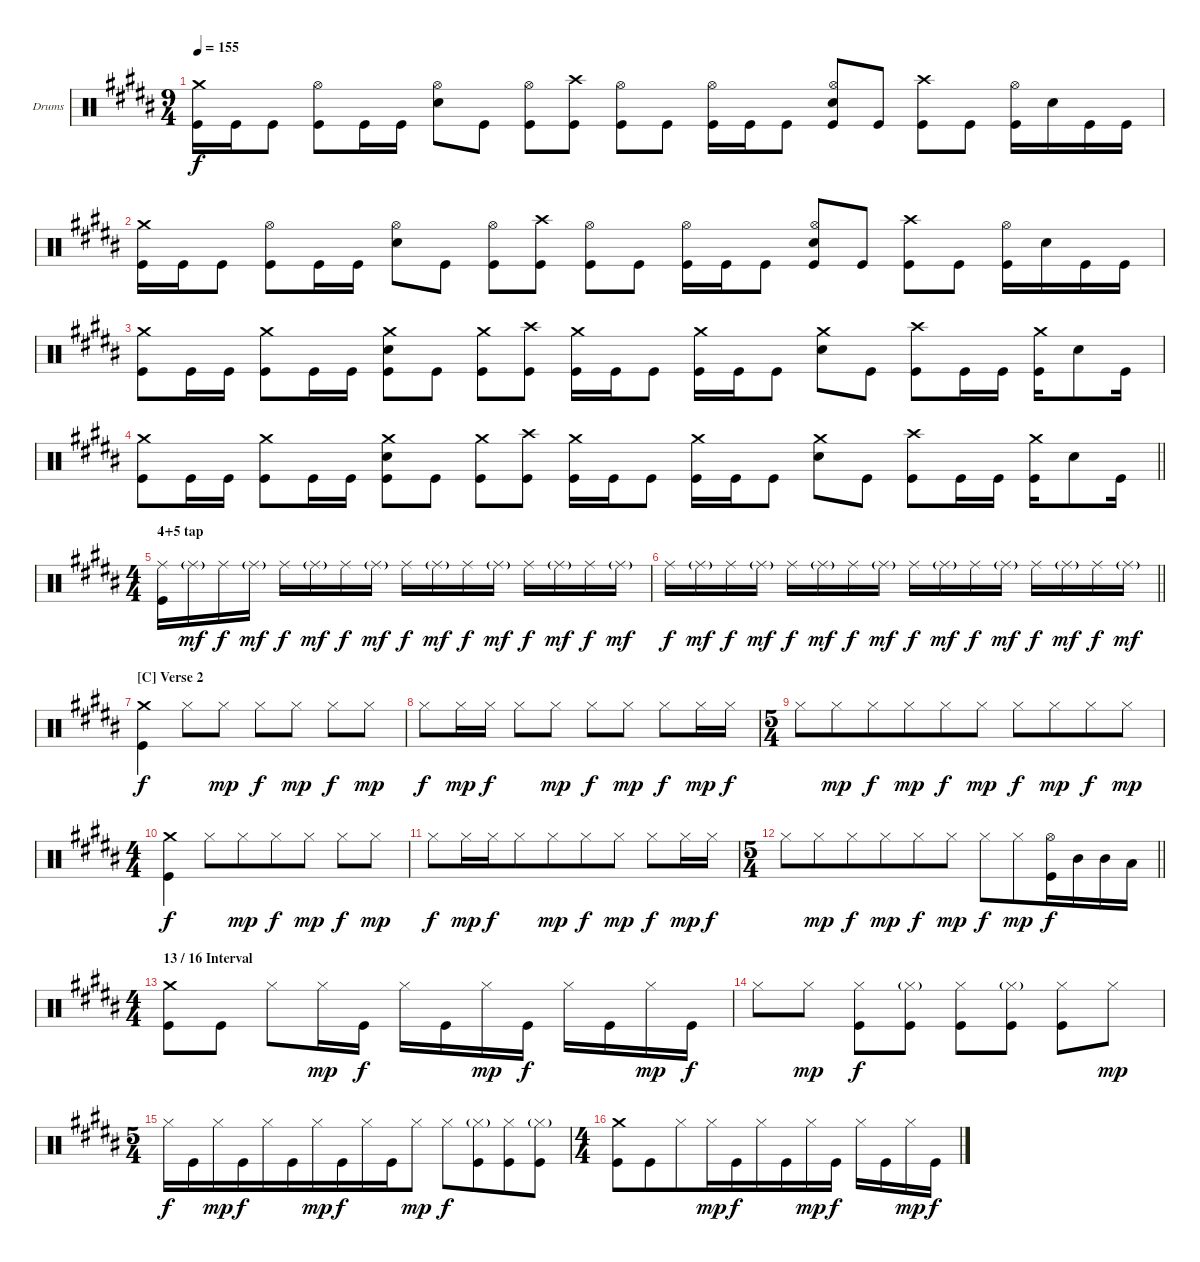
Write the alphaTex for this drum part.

\bracketExtendMode groupsimilarinstruments
\firstSystemTrackNameOrientation horizontal
\otherSystemsTrackNameOrientation horizontal
\track ("Navene Koperweis" "Drums") {instrument percussion}
\staff {score}
\articulation defaults
\ts (9 4)
\tempo 155
\clef neutral
\ks b
("Crash medium (hit)" "Kick (hit)").16{dy f} "Kick (hit)".16 "Kick (hit)".8 ("Hi-Hat (open)" "Kick (hit)").8 "Kick (hit)".16 "Kick (hit)".16 ("Hi-Hat (open)" "Snare (hit) 2").8 "Kick (hit)".8 ("Hi-Hat (open)" "Kick (hit)").8 ("Crash high (hit)" "Kick (hit)").8 ("Hi-Hat (open)" "Kick (hit)").8 "Kick (hit)".8 ("Hi-Hat (open)" "Kick (hit)").16 "Kick (hit)".16 "Kick (hit)".8 ("Hi-Hat (open)" "Snare (hit) 2" "Kick (hit)").8 "Kick (hit)".8 ("Crash high (hit)" "Kick (hit)").8 "Kick (hit)".8 ("Hi-Hat (open)" "Kick (hit)").16 "Snare (hit) 2".16 "Kick (hit)".16 "Kick (hit)".16 |
("Crash medium (hit)" "Kick (hit)").16 "Kick (hit)".16 "Kick (hit)".8 ("Hi-Hat (open)" "Kick (hit)").8 "Kick (hit)".16 "Kick (hit)".16 ("Hi-Hat (open)" "Snare (hit) 2").8 "Kick (hit)".8 ("Hi-Hat (open)" "Kick (hit)").8 ("Crash high (hit)" "Kick (hit)").8 ("Hi-Hat (open)" "Kick (hit)").8 "Kick (hit)".8 ("Hi-Hat (open)" "Kick (hit)").16 "Kick (hit)".16 "Kick (hit)".8 ("Hi-Hat (open)" "Snare (hit) 2" "Kick (hit)").8 "Kick (hit)".8 ("Crash high (hit)" "Kick (hit)").8 "Kick (hit)".8 ("Hi-Hat (open)" "Kick (hit)").16 "Snare (hit) 2".16 "Kick (hit)".16 "Kick (hit)".16 |
("Crash medium (hit)" "Kick (hit)").8 "Kick (hit)".16 "Kick (hit)".16 ("Crash medium (hit)" "Kick (hit)").8 "Kick (hit)".16 "Kick (hit)".16 ("Crash medium (hit)" "Snare (hit) 2" "Kick (hit)").8 "Kick (hit)".8 ("Crash medium (hit)" "Kick (hit)").8 ("Crash high (hit)" "Kick (hit)").8 ("Crash medium (hit)" "Kick (hit)").16 "Kick (hit)".16 "Kick (hit)".8 ("Crash medium (hit)" "Kick (hit)").16 "Kick (hit)".16 "Kick (hit)".8 ("Crash medium (hit)" "Snare (hit) 2").8 "Kick (hit)".8 ("Crash high (hit)" "Kick (hit)").8 "Kick (hit)".16 "Kick (hit)".16 ("Crash medium (hit)" "Kick (hit)").16 "Snare (hit) 2".8 "Kick (hit)".16 |
\barLineRight lightlight
("Crash medium (hit)" "Kick (hit)").8 "Kick (hit)".16 "Kick (hit)".16 ("Crash medium (hit)" "Kick (hit)").8 "Kick (hit)".16 "Kick (hit)".16 ("Crash medium (hit)" "Snare (hit) 2" "Kick (hit)").8 "Kick (hit)".8 ("Crash medium (hit)" "Kick (hit)").8 ("Crash high (hit)" "Kick (hit)").8 ("Crash medium (hit)" "Kick (hit)").16 "Kick (hit)".16 "Kick (hit)".8 ("Crash medium (hit)" "Kick (hit)").16 "Kick (hit)".16 "Kick (hit)".8 ("Crash medium (hit)" "Snare (hit) 2").8 "Kick (hit)".8 ("Crash high (hit)" "Kick (hit)").8 "Kick (hit)".16 "Kick (hit)".16 ("Crash medium (hit)" "Kick (hit)").16 "Snare (hit) 2".8 "Kick (hit)".16 |
\ts (4 4)
\beaming (8 2 2 2 2)
\section ("" "4+5 tap")
("Ride (middle)" "Kick (hit)").16 "Ride (middle)"{g}.16{dy mf} "Ride (middle)".16{dy f} "Ride (middle)"{g}.16{dy mf} "Ride (middle)".16{dy f} "Ride (middle)"{g}.16{dy mf} "Ride (middle)".16{dy f} "Ride (middle)"{g}.16{dy mf} "Ride (middle)".16{dy f} "Ride (middle)"{g}.16{dy mf} "Ride (middle)".16{dy f} "Ride (middle)"{g}.16{dy mf} "Ride (middle)".16{dy f} "Ride (middle)"{g}.16{dy mf} "Ride (middle)".16{dy f} "Ride (middle)"{g}.16{dy mf} |
\barLineRight lightlight "Ride (middle)".16{dy f} "Ride (middle)"{g}.16{dy mf} "Ride (middle)".16{dy f} "Ride (middle)"{g}.16{dy mf} "Ride (middle)".16{dy f} "Ride (middle)"{g}.16{dy mf} "Ride (middle)".16{dy f} "Ride (middle)"{g}.16{dy mf} "Ride (middle)".16{dy f} "Ride (middle)"{g}.16{dy mf} "Ride (middle)".16{dy f} "Ride (middle)"{g}.16{dy mf} "Ride (middle)".16{dy f} "Ride (middle)"{g}.16{dy mf} "Ride (middle)".16{dy f} "Ride (middle)"{g}.16{dy mf}
|
\section ("C" "Verse 2")
("Crash medium (hit)" "Kick (hit)").4{dy f} "Hi-Hat (closed)".8 "Hi-Hat (closed)".8{dy mp} "Hi-Hat (closed)".8{dy f} "Hi-Hat (closed)".8{dy mp} "Hi-Hat (closed)".8{dy f} "Hi-Hat (closed)".8{dy mp} |
"Hi-Hat (closed)".8{dy f} "Hi-Hat (closed)".16{dy mp} "Hi-Hat (closed)".16{dy f} "Hi-Hat (closed)".8 "Hi-Hat (closed)".8{dy mp} "Hi-Hat (closed)".8{dy f} "Hi-Hat (closed)".8{dy mp} "Hi-Hat (closed)".8{dy f} "Hi-Hat (closed)".16{dy mp} "Hi-Hat (closed)".16{dy f} |
\ts (5 4)
\beaming (8 6 4)
"Hi-Hat (closed)".8 "Hi-Hat (closed)".8{dy mp} "Hi-Hat (closed)".8{dy f} "Hi-Hat (closed)".8{dy mp} "Hi-Hat (closed)".8{dy f} "Hi-Hat (closed)".8{dy mp} "Hi-Hat (closed)".8{dy f} "Hi-Hat (closed)".8{dy mp} "Hi-Hat (closed)".8{dy f} "Hi-Hat (closed)".8{dy mp} |
\ts (4 4)
\beaming (8 6 4)
("Crash medium (hit)" "Kick (hit)").4{dy f} "Hi-Hat (closed)".8 "Hi-Hat (closed)".8{dy mp} "Hi-Hat (closed)".8{dy f} "Hi-Hat (closed)".8{dy mp} "Hi-Hat (closed)".8{dy f} "Hi-Hat (closed)".8{dy mp} |
"Hi-Hat (closed)".8{dy f} "Hi-Hat (closed)".16{dy mp} "Hi-Hat (closed)".16{dy f} "Hi-Hat (closed)".8 "Hi-Hat (closed)".8{dy mp} "Hi-Hat (closed)".8{dy f} "Hi-Hat (closed)".8{dy mp} "Hi-Hat (closed)".8{dy f} "Hi-Hat (closed)".16{dy mp} "Hi-Hat (closed)".16{dy f} |
\ts (5 4)
\beaming (8 6 4)
\barLineRight lightlight "Hi-Hat (closed)".8 "Hi-Hat (closed)".8{dy mp} "Hi-Hat (closed)".8{dy f} "Hi-Hat (closed)".8{dy mp} "Hi-Hat (closed)".8{dy f} "Hi-Hat (closed)".8{dy mp} "Hi-Hat (closed)".8{dy f} "Hi-Hat (closed)".8{dy mp}
("Hi-Hat (open)" "Kick (hit)").16{dy f} "Mid Tom (hit)".16 "Mid Tom (hit)".16 "Low Tom (hit)".16 |
\ts (4 4)
\beaming (8 2 2 2 2)
\section ("" "13 / 16 Interval")
("Crash medium (hit)" "Kick (hit)").8 "Kick (hit)".8 "Hi-Hat (closed)".8 "Hi-Hat (closed)".16{dy mp} "Kick (hit)".16{dy f} "Hi-Hat (closed)".16 "Kick (hit)".16 "Hi-Hat (closed)".16{dy mp} "Kick (hit)".16{dy f} "Hi-Hat (closed)".16 "Kick (hit)".16 "Hi-Hat (closed)".16{dy mp} "Kick (hit)".16{dy f} |
"Hi-Hat (closed)".8 "Hi-Hat (closed)".8{dy mp} ("Hi-Hat (closed)" "Kick (hit)").8{dy f} ("Hi-Hat (closed)"{g} "Kick (hit)").8 ("Hi-Hat (closed)" "Kick (hit)").8 ("Hi-Hat (closed)"{g} "Kick (hit)").8 ("Hi-Hat (closed)" "Kick (hit)").8 "Hi-Hat (closed)".8{dy mp} |
\ts (5 4)
\beaming (8 6 4)
"Hi-Hat (closed)".16{dy f} "Kick (hit)".16 "Hi-Hat (closed)".16{dy mp} "Kick (hit)".16{dy f} "Hi-Hat (closed)".16 "Kick (hit)".16 "Hi-Hat (closed)".16{dy mp} "Kick (hit)".16{dy f} "Hi-Hat (closed)".16 "Kick (hit)".16 "Hi-Hat (closed)".8{dy mp} "Hi-Hat (closed)".8{dy f} ("Hi-Hat (closed)"{g} "Kick (hit)").8 ("Hi-Hat (closed)" "Kick (hit)").8 ("Hi-Hat (closed)"{g} "Kick (hit)").8 |
\ts (4 4)
\beaming (8 6 4)
("Crash medium (hit)" "Kick (hit)").8 "Kick (hit)".8 "Hi-Hat (closed)".8 "Hi-Hat (closed)".16{dy mp} "Kick (hit)".16{dy f} "Hi-Hat (closed)".16 "Kick (hit)".16 "Hi-Hat (closed)".16{dy mp} "Kick (hit)".16{dy f} "Hi-Hat (closed)".16 "Kick (hit)".16 "Hi-Hat (closed)".16{dy mp} "Kick (hit)".16{dy f}
